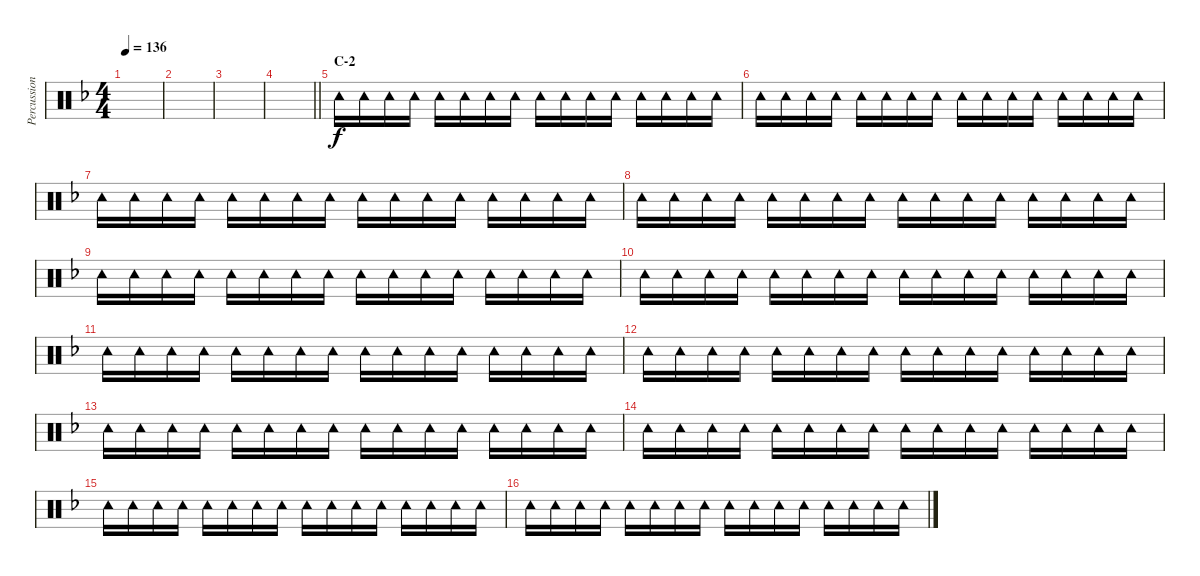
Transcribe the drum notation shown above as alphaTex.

\track ("Percussion" "Percussion") {instrument percussion}
\staff {score}
\articulation defaults
\ts (4 4)
\tempo 136
\clef neutral
\ks dminor
|
|
|
\barLineRight lightlight
|
\section ("" "C-2")
"Tambourine (hit)".16 "Tambourine (hit)".16 "Tambourine (hit)".16 "Tambourine (hit)".16 "Tambourine (hit)".16 "Tambourine (hit)".16 "Tambourine (hit)".16 "Tambourine (hit)".16 "Tambourine (hit)".16 "Tambourine (hit)".16 "Tambourine (hit)".16 "Tambourine (hit)".16 "Tambourine (hit)".16 "Tambourine (hit)".16 "Tambourine (hit)".16 "Tambourine (hit)".16 |
"Tambourine (hit)".16 "Tambourine (hit)".16 "Tambourine (hit)".16 "Tambourine (hit)".16 "Tambourine (hit)".16 "Tambourine (hit)".16 "Tambourine (hit)".16 "Tambourine (hit)".16 "Tambourine (hit)".16 "Tambourine (hit)".16 "Tambourine (hit)".16 "Tambourine (hit)".16 "Tambourine (hit)".16 "Tambourine (hit)".16 "Tambourine (hit)".16 "Tambourine (hit)".16 |
"Tambourine (hit)".16 "Tambourine (hit)".16 "Tambourine (hit)".16 "Tambourine (hit)".16 "Tambourine (hit)".16 "Tambourine (hit)".16 "Tambourine (hit)".16 "Tambourine (hit)".16 "Tambourine (hit)".16 "Tambourine (hit)".16 "Tambourine (hit)".16 "Tambourine (hit)".16 "Tambourine (hit)".16 "Tambourine (hit)".16 "Tambourine (hit)".16 "Tambourine (hit)".16 |
"Tambourine (hit)".16 "Tambourine (hit)".16 "Tambourine (hit)".16 "Tambourine (hit)".16 "Tambourine (hit)".16 "Tambourine (hit)".16 "Tambourine (hit)".16 "Tambourine (hit)".16 "Tambourine (hit)".16 "Tambourine (hit)".16 "Tambourine (hit)".16 "Tambourine (hit)".16 "Tambourine (hit)".16 "Tambourine (hit)".16 "Tambourine (hit)".16 "Tambourine (hit)".16 |
"Tambourine (hit)".16 "Tambourine (hit)".16 "Tambourine (hit)".16 "Tambourine (hit)".16 "Tambourine (hit)".16 "Tambourine (hit)".16 "Tambourine (hit)".16 "Tambourine (hit)".16 "Tambourine (hit)".16 "Tambourine (hit)".16 "Tambourine (hit)".16 "Tambourine (hit)".16 "Tambourine (hit)".16 "Tambourine (hit)".16 "Tambourine (hit)".16 "Tambourine (hit)".16 |
"Tambourine (hit)".16 "Tambourine (hit)".16 "Tambourine (hit)".16 "Tambourine (hit)".16 "Tambourine (hit)".16 "Tambourine (hit)".16 "Tambourine (hit)".16 "Tambourine (hit)".16 "Tambourine (hit)".16 "Tambourine (hit)".16 "Tambourine (hit)".16 "Tambourine (hit)".16 "Tambourine (hit)".16 "Tambourine (hit)".16 "Tambourine (hit)".16 "Tambourine (hit)".16 |
"Tambourine (hit)".16 "Tambourine (hit)".16 "Tambourine (hit)".16 "Tambourine (hit)".16 "Tambourine (hit)".16 "Tambourine (hit)".16 "Tambourine (hit)".16 "Tambourine (hit)".16 "Tambourine (hit)".16 "Tambourine (hit)".16 "Tambourine (hit)".16 "Tambourine (hit)".16 "Tambourine (hit)".16 "Tambourine (hit)".16 "Tambourine (hit)".16 "Tambourine (hit)".16 |
"Tambourine (hit)".16 "Tambourine (hit)".16 "Tambourine (hit)".16 "Tambourine (hit)".16 "Tambourine (hit)".16 "Tambourine (hit)".16 "Tambourine (hit)".16 "Tambourine (hit)".16 "Tambourine (hit)".16 "Tambourine (hit)".16 "Tambourine (hit)".16 "Tambourine (hit)".16 "Tambourine (hit)".16 "Tambourine (hit)".16 "Tambourine (hit)".16 "Tambourine (hit)".16 |
"Tambourine (hit)".16 "Tambourine (hit)".16 "Tambourine (hit)".16 "Tambourine (hit)".16 "Tambourine (hit)".16 "Tambourine (hit)".16 "Tambourine (hit)".16 "Tambourine (hit)".16 "Tambourine (hit)".16 "Tambourine (hit)".16 "Tambourine (hit)".16 "Tambourine (hit)".16 "Tambourine (hit)".16 "Tambourine (hit)".16 "Tambourine (hit)".16 "Tambourine (hit)".16 |
"Tambourine (hit)".16 "Tambourine (hit)".16 "Tambourine (hit)".16 "Tambourine (hit)".16 "Tambourine (hit)".16 "Tambourine (hit)".16 "Tambourine (hit)".16 "Tambourine (hit)".16 "Tambourine (hit)".16 "Tambourine (hit)".16 "Tambourine (hit)".16 "Tambourine (hit)".16 "Tambourine (hit)".16 "Tambourine (hit)".16 "Tambourine (hit)".16 "Tambourine (hit)".16 |
"Tambourine (hit)".16 "Tambourine (hit)".16 "Tambourine (hit)".16 "Tambourine (hit)".16 "Tambourine (hit)".16 "Tambourine (hit)".16 "Tambourine (hit)".16 "Tambourine (hit)".16 "Tambourine (hit)".16 "Tambourine (hit)".16 "Tambourine (hit)".16 "Tambourine (hit)".16 "Tambourine (hit)".16 "Tambourine (hit)".16 "Tambourine (hit)".16 "Tambourine (hit)".16 |
"Tambourine (hit)".16 "Tambourine (hit)".16 "Tambourine (hit)".16 "Tambourine (hit)".16 "Tambourine (hit)".16 "Tambourine (hit)".16 "Tambourine (hit)".16 "Tambourine (hit)".16 "Tambourine (hit)".16 "Tambourine (hit)".16 "Tambourine (hit)".16 "Tambourine (hit)".16 "Tambourine (hit)".16 "Tambourine (hit)".16 "Tambourine (hit)".16 "Tambourine (hit)".16
